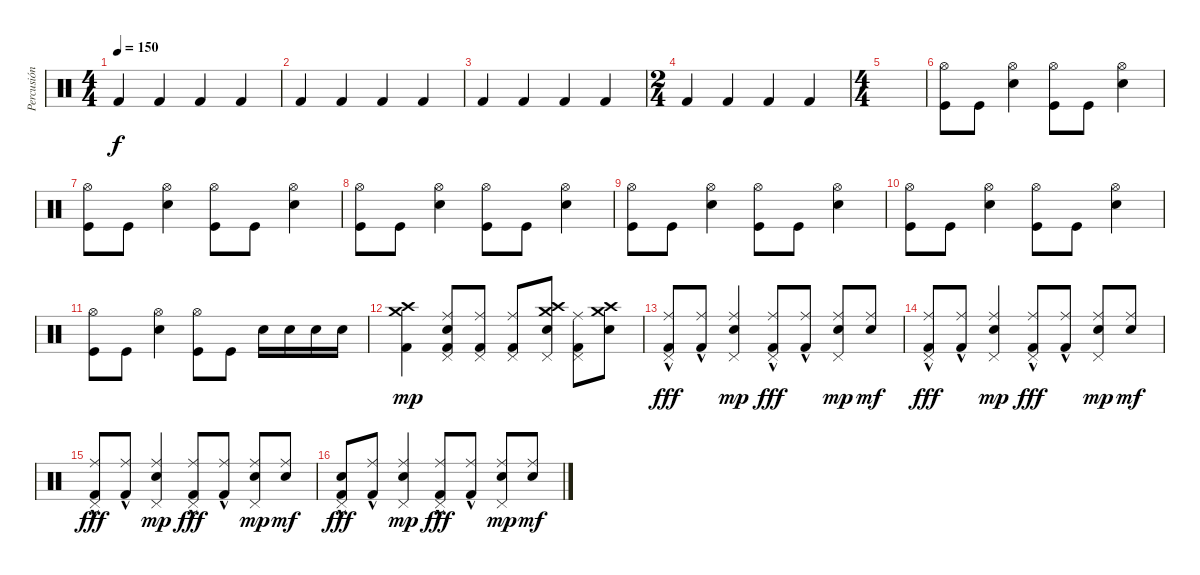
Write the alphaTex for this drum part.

\track ("Percusión" "Percusión") {instrument percussion}
\staff {score}
\articulation defaults
\ts (4 4)
\tempo 150
\clef neutral
\ks c "Kick (hit) 2".4{dy f} "Kick (hit) 2".4 "Kick (hit) 2".4 "Kick (hit) 2".4
|
"Kick (hit) 2".4 "Kick (hit) 2".4 "Kick (hit) 2".4 "Kick (hit) 2".4 |
"Kick (hit) 2".4 "Kick (hit) 2".4 "Kick (hit) 2".4 "Kick (hit) 2".4 |
\ts (2 4)
"Kick (hit) 2".4 "Kick (hit) 2".4 "Kick (hit) 2".4 "Kick (hit) 2".4 |
\ts (4 4)
|
("Hi-Hat (open)" "Kick (hit)").8 "Kick (hit)".8 ("Hi-Hat (open)" "Snare (hit) 2").4 ("Hi-Hat (open)" "Kick (hit)").8 "Kick (hit)".8 ("Hi-Hat (open)" "Snare (hit) 2").4 |
("Hi-Hat (open)" "Kick (hit)").8 "Kick (hit)".8 ("Hi-Hat (open)" "Snare (hit) 2").4 ("Hi-Hat (open)" "Kick (hit)").8 "Kick (hit)".8 ("Hi-Hat (open)" "Snare (hit) 2").4 |
("Hi-Hat (open)" "Kick (hit)").8 "Kick (hit)".8 ("Hi-Hat (open)" "Snare (hit) 2").4 ("Hi-Hat (open)" "Kick (hit)").8 "Kick (hit)".8 ("Hi-Hat (open)" "Snare (hit) 2").4 |
("Hi-Hat (open)" "Kick (hit)").8 "Kick (hit)".8 ("Hi-Hat (open)" "Snare (hit) 2").4 ("Hi-Hat (open)" "Kick (hit)").8 "Kick (hit)".8 ("Hi-Hat (open)" "Snare (hit) 2").4 |
("Hi-Hat (open)" "Kick (hit)").8 "Kick (hit)".8 ("Hi-Hat (open)" "Snare (hit) 2").4 ("Hi-Hat (open)" "Kick (hit)").8 "Kick (hit)".8 ("Hi-Hat (open)" "Snare (hit) 2").4 |
("Hi-Hat (open)" "Kick (hit)").8 "Kick (hit)".8 ("Hi-Hat (open)" "Snare (hit) 2").4 ("Hi-Hat (open)" "Kick (hit)").8 "Kick (hit)".8 "Electric Snare (hit)".16 "Electric Snare (hit)".16 "Electric Snare (hit)".16 "Electric Snare (hit)".16 |
("Crash high (hit)" "Crash medium (hit)" "Kick (hit) 2").4{dy mp} ("Ride (middle)" "Pedal Hi-Hat (hit)" "Electric Snare (hit)" "Kick (hit) 2").8 ("Ride (middle)" "Pedal Hi-Hat (hit)" "Kick (hit) 2").8 ("Ride (middle)" "Pedal Hi-Hat (hit)" "Kick (hit) 2").8 ("Crash high (hit)" "Pedal Hi-Hat (hit)" "Electric Snare (hit)" "Crash medium (hit)").8 ("Ride (middle)" "Pedal Hi-Hat (hit)" "Kick (hit) 2").8 ("Crash medium (hit)" "Electric Snare (hit)" "Crash high (hit)").8 |
("Ride (middle)" "Pedal Hi-Hat (hit)" "Kick (hit) 2"{hac}).8{dy fff} ("Ride (middle)" "Kick (hit) 2"{hac}).8 ("Ride (middle)" "Pedal Hi-Hat (hit)" "Electric Snare (hit)").4{dy mp} ("Ride (middle)" "Pedal Hi-Hat (hit)" "Kick (hit) 2"{hac}).8{dy fff} ("Ride (middle)" "Kick (hit) 2"{hac}).8 ("Ride (middle)" "Pedal Hi-Hat (hit)" "Electric Snare (hit)").8{dy mp} ("Ride (middle)" "Electric Snare (hit)").8{dy mf} |
("Ride (middle)" "Pedal Hi-Hat (hit)" "Kick (hit) 2"{hac}).8{dy fff} ("Ride (middle)" "Kick (hit) 2"{hac}).8 ("Ride (middle)" "Pedal Hi-Hat (hit)" "Electric Snare (hit)").4{dy mp} ("Ride (middle)" "Pedal Hi-Hat (hit)" "Kick (hit) 2"{hac}).8{dy fff} ("Ride (middle)" "Kick (hit) 2"{hac}).8 ("Ride (middle)" "Pedal Hi-Hat (hit)" "Electric Snare (hit)").8{dy mp} ("Ride (middle)" "Electric Snare (hit)").8{dy mf} |
("Ride (middle)" "Pedal Hi-Hat (hit)" "Kick (hit) 2"{hac}).8{dy fff} ("Ride (middle)" "Kick (hit) 2"{hac}).8 ("Ride (middle)" "Pedal Hi-Hat (hit)" "Electric Snare (hit)").4{dy mp} ("Ride (middle)" "Pedal Hi-Hat (hit)" "Kick (hit) 2"{hac}).8{dy fff} ("Ride (middle)" "Kick (hit) 2"{hac}).8 ("Ride (middle)" "Pedal Hi-Hat (hit)" "Electric Snare (hit)").8{dy mp} ("Ride (middle)" "Electric Snare (hit)").8{dy mf} |
("Snare (hit)" "Pedal Hi-Hat (hit)" "Kick (hit) 2"{hac}).8{dy fff} ("Ride (middle)" "Kick (hit) 2"{hac}).8 ("Ride (middle)" "Pedal Hi-Hat (hit)" "Electric Snare (hit)").4{dy mp} ("Ride (middle)" "Pedal Hi-Hat (hit)" "Kick (hit) 2"{hac}).8{dy fff} ("Ride (middle)" "Kick (hit) 2"{hac}).8 ("Ride (middle)" "Pedal Hi-Hat (hit)" "Electric Snare (hit)").8{dy mp} ("Ride (middle)" "Electric Snare (hit)").8{dy mf}
